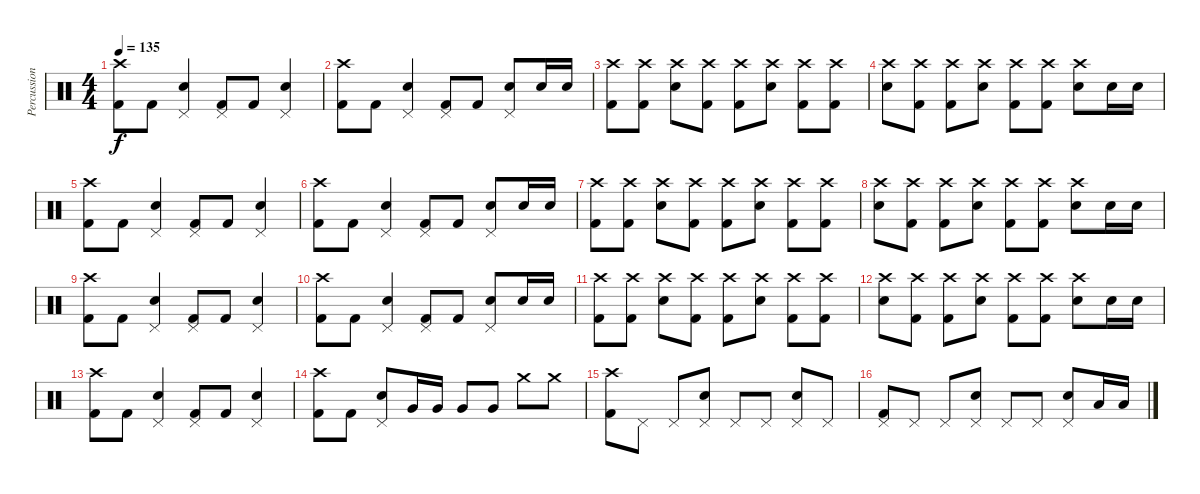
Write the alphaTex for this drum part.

\track ("Percussions" "Percussion") {instrument percussion}
\staff {score}
\articulation defaults
\ts (4 4)
\tempo 135
\clef neutral
\ks c
("Crash high (hit)" "Kick (hit) 2").8{dy f} "Kick (hit) 2".8 ("Pedal Hi-Hat (hit)" "Snare (hit) 2").4 ("Pedal Hi-Hat (hit)" "Kick (hit) 2").8 "Kick (hit) 2".8 ("Pedal Hi-Hat (hit)" "Snare (hit) 2").4 |
("Crash high (hit)" "Kick (hit) 2").8 "Kick (hit) 2".8 ("Pedal Hi-Hat (hit)" "Snare (hit) 2").4 ("Pedal Hi-Hat (hit)" "Kick (hit) 2").8 "Kick (hit) 2".8 ("Pedal Hi-Hat (hit)" "Snare (hit) 2").8 "Snare (hit) 2".16 "Snare (hit) 2".16 |
("Crash high (hit)" "Kick (hit) 2").8 ("Crash high (hit)" "Kick (hit) 2").8 ("Crash high (hit)" "Snare (hit) 2").8 ("Crash high (hit)" "Kick (hit) 2").8 ("Crash high (hit)" "Kick (hit) 2").8 ("Crash high (hit)" "Snare (hit) 2").8 ("Crash high (hit)" "Kick (hit) 2").8 ("Crash high (hit)" "Kick (hit) 2").8 |
("Crash high (hit)" "Snare (hit) 2").8 ("Crash high (hit)" "Kick (hit) 2").8 ("Crash high (hit)" "Kick (hit) 2").8 ("Crash high (hit)" "Snare (hit) 2").8 ("Crash high (hit)" "Kick (hit) 2").8 ("Crash high (hit)" "Kick (hit) 2").8 ("Crash high (hit)" "Snare (hit) 2").8 "Snare (hit) 2".16 "Snare (hit) 2".16 |
("Crash high (hit)" "Kick (hit) 2").8 "Kick (hit) 2".8 ("Pedal Hi-Hat (hit)" "Snare (hit) 2").4 ("Pedal Hi-Hat (hit)" "Kick (hit) 2").8 "Kick (hit) 2".8 ("Pedal Hi-Hat (hit)" "Snare (hit) 2").4 |
("Crash high (hit)" "Kick (hit) 2").8 "Kick (hit) 2".8 ("Pedal Hi-Hat (hit)" "Snare (hit) 2").4 ("Pedal Hi-Hat (hit)" "Kick (hit) 2").8 "Kick (hit) 2".8 ("Pedal Hi-Hat (hit)" "Snare (hit) 2").8 "Snare (hit) 2".16 "Snare (hit) 2".16 |
("Crash high (hit)" "Kick (hit) 2").8 ("Crash high (hit)" "Kick (hit) 2").8 ("Crash high (hit)" "Snare (hit) 2").8 ("Crash high (hit)" "Kick (hit) 2").8 ("Crash high (hit)" "Kick (hit) 2").8 ("Crash high (hit)" "Snare (hit) 2").8 ("Crash high (hit)" "Kick (hit) 2").8 ("Crash high (hit)" "Kick (hit) 2").8 |
("Crash high (hit)" "Snare (hit) 2").8 ("Crash high (hit)" "Kick (hit) 2").8 ("Crash high (hit)" "Kick (hit) 2").8 ("Crash high (hit)" "Snare (hit) 2").8 ("Crash high (hit)" "Kick (hit) 2").8 ("Crash high (hit)" "Kick (hit) 2").8 ("Crash high (hit)" "Snare (hit) 2").8 "Snare (hit) 2".16 "Snare (hit) 2".16 |
("Crash high (hit)" "Kick (hit) 2").8 "Kick (hit) 2".8 ("Pedal Hi-Hat (hit)" "Snare (hit) 2").4 ("Pedal Hi-Hat (hit)" "Kick (hit) 2").8 "Kick (hit) 2".8 ("Pedal Hi-Hat (hit)" "Snare (hit) 2").4 |
("Crash high (hit)" "Kick (hit) 2").8 "Kick (hit) 2".8 ("Pedal Hi-Hat (hit)" "Snare (hit) 2").4 ("Pedal Hi-Hat (hit)" "Kick (hit) 2").8 "Kick (hit) 2".8 ("Pedal Hi-Hat (hit)" "Snare (hit) 2").8 "Snare (hit) 2".16 "Snare (hit) 2".16 |
("Crash high (hit)" "Kick (hit) 2").8 ("Crash high (hit)" "Kick (hit) 2").8 ("Crash high (hit)" "Snare (hit) 2").8 ("Crash high (hit)" "Kick (hit) 2").8 ("Crash high (hit)" "Kick (hit) 2").8 ("Crash high (hit)" "Snare (hit) 2").8 ("Crash high (hit)" "Kick (hit) 2").8 ("Crash high (hit)" "Kick (hit) 2").8 |
("Crash high (hit)" "Snare (hit) 2").8 ("Crash high (hit)" "Kick (hit) 2").8 ("Crash high (hit)" "Kick (hit) 2").8 ("Crash high (hit)" "Snare (hit) 2").8 ("Crash high (hit)" "Kick (hit) 2").8 ("Crash high (hit)" "Kick (hit) 2").8 ("Crash high (hit)" "Snare (hit) 2").8 "Snare (hit) 2".16 "Snare (hit) 2".16 |
("Crash high (hit)" "Kick (hit) 2").8 "Kick (hit) 2".8 ("Pedal Hi-Hat (hit)" "Snare (hit) 2").4 ("Pedal Hi-Hat (hit)" "Kick (hit) 2").8 "Kick (hit) 2".8 ("Pedal Hi-Hat (hit)" "Snare (hit) 2").4 |
("Crash high (hit)" "Kick (hit) 2").8 "Kick (hit) 2".8 ("Pedal Hi-Hat (hit)" "Snare (hit) 2").8 "Very Low Tom (hit)".16 "Very Low Tom (hit)".16 "Very Low Tom (hit)".8 "Very Low Tom (hit)".8 "Crash medium (hit)".8 "Crash medium (hit)".8 |
("Crash high (hit)" "Kick (hit) 2").8 "Pedal Hi-Hat (hit)".8 "Pedal Hi-Hat (hit)".8 ("Pedal Hi-Hat (hit)" "Snare (hit) 2").8 "Pedal Hi-Hat (hit)".8 "Pedal Hi-Hat (hit)".8 ("Pedal Hi-Hat (hit)" "Snare (hit) 2").8 "Pedal Hi-Hat (hit)".8 |
("Pedal Hi-Hat (hit)" "Kick (hit) 2").8 "Pedal Hi-Hat (hit)".8 "Pedal Hi-Hat (hit)".8 ("Pedal Hi-Hat (hit)" "Snare (hit) 2").8 "Pedal Hi-Hat (hit)".8 "Pedal Hi-Hat (hit)".8 ("Pedal Hi-Hat (hit)" "Snare (hit) 2").8 "Low Tom (hit)".16 "Low Tom (hit)".16
